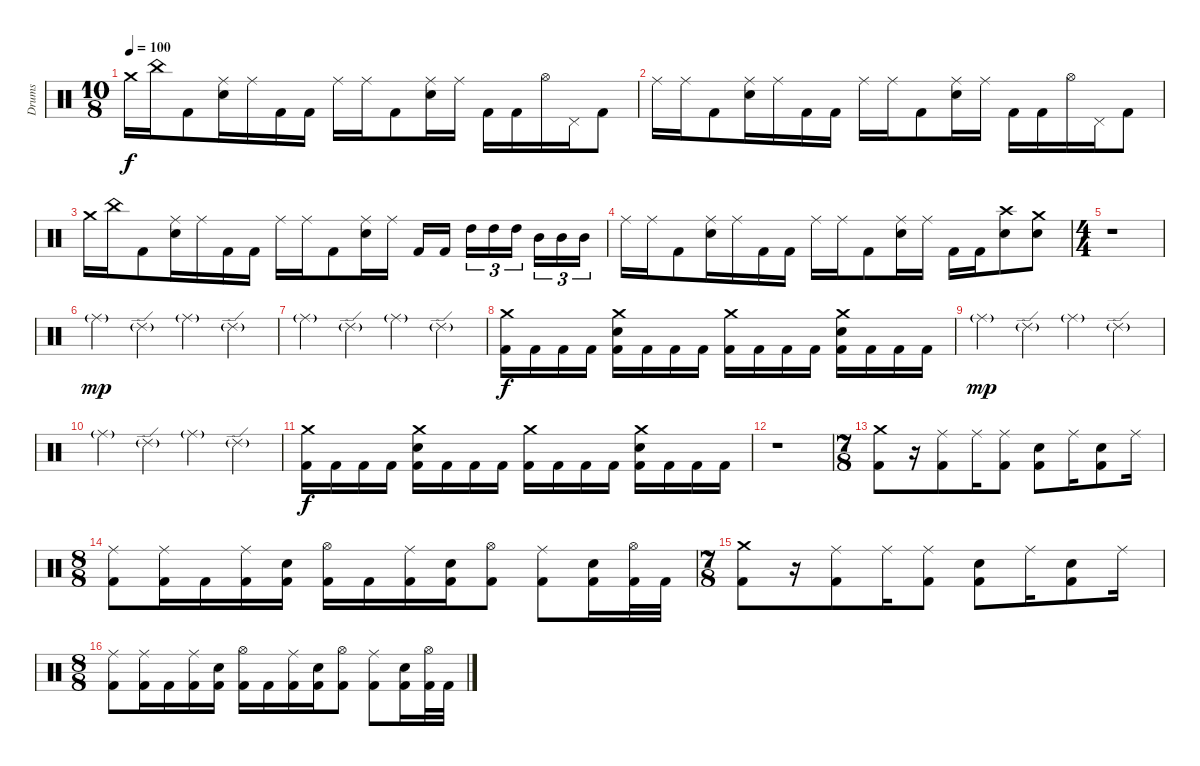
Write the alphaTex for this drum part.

\track ("Drums" "Drums") {instrument percussion}
\staff {score}
\articulation defaults
\ts (10 8)
\tempo 100
\clef neutral
\ks c "Crash medium (hit)".16{dy f} "China (hit)".16 "Kick (hit) 2".8
("Ride (middle)" "Snare (hit) 2").16 "Ride (middle)".16 "Kick (hit) 2".16 "Kick (hit) 2".16 "Ride (middle)".16 "Ride (middle)".16 "Kick (hit) 2".8 ("Ride (middle)" "Snare (hit) 2").16 "Ride (middle)".16 "Kick (hit) 2".16 "Kick (hit) 2".16 "Hi-Hat (open)".16 "Pedal Hi-Hat (hit)".16 "Kick (hit) 2".8 |
"Ride (middle)".16 "Ride (middle)".16 "Kick (hit) 2".8 ("Ride (middle)" "Snare (hit) 2").16 "Ride (middle)".16 "Kick (hit) 2".16 "Kick (hit) 2".16 "Ride (middle)".16 "Ride (middle)".16 "Kick (hit) 2".8 ("Ride (middle)" "Snare (hit) 2").16 "Ride (middle)".16 "Kick (hit) 2".16 "Kick (hit) 2".16 "Hi-Hat (open)".16 "Pedal Hi-Hat (hit)".16 "Kick (hit) 2".8 |
"Crash medium (hit)".16 "China (hit)".16 "Kick (hit) 2".8 ("Ride (middle)" "Snare (hit) 2").16 "Ride (middle)".16 "Kick (hit) 2".16 "Kick (hit) 2".16 "Ride (middle)".16 "Ride (middle)".16 "Kick (hit) 2".8 ("Ride (middle)" "Snare (hit) 2").16 "Ride (middle)".16 "Kick (hit) 2".16 "Kick (hit) 2".16 "High Tom (hit)".16{tu (3 2)} "High Tom (hit)".16{tu (3 2)} "High Tom (hit)".16{tu (3 2)} "Mid Tom (hit)".16{tu (3 2)} "Mid Tom (hit)".16{tu (3 2)} "Mid Tom (hit)".16{tu (3 2)} |
"Ride (middle)".16 "Ride (middle)".16 "Kick (hit) 2".8 ("Ride (middle)" "Snare (hit) 2").16 "Ride (middle)".16 "Kick (hit) 2".16 "Kick (hit) 2".16 "Ride (middle)".16 "Ride (middle)".16 "Kick (hit) 2".8 ("Ride (middle)" "Snare (hit) 2").16 "Ride (middle)".16 "Kick (hit) 2".16 "Kick (hit) 2".16 ("Crash high (hit)" "Snare (hit) 2").8 ("Crash medium (hit)" "Snare (hit) 2").8 |
\ts (4 4)
r.1 |
"Ride (middle)"{g}.4{dy mp} "Ride (edge) 2"{g}.4 "Ride (middle)"{g}.4 "Ride (edge) 2"{g}.4 |
"Ride (middle)"{g}.4 "Ride (edge) 2"{g}.4 "Ride (middle)"{g}.4 "Ride (edge) 2"{g}.4 |
("Crash medium (hit)" "Kick (hit) 2").16{dy f} "Kick (hit) 2".16 "Kick (hit) 2".16 "Kick (hit) 2".16 ("Crash medium (hit)" "Snare (hit) 2" "Kick (hit) 2").16 "Kick (hit) 2".16 "Kick (hit) 2".16 "Kick (hit) 2".16 ("Crash medium (hit)" "Kick (hit) 2").16 "Kick (hit) 2".16 "Kick (hit) 2".16 "Kick (hit) 2".16 ("Crash medium (hit)" "Snare (hit) 2" "Kick (hit) 2").16 "Kick (hit) 2".16 "Kick (hit) 2".16 "Kick (hit) 2".16 |
"Ride (middle)"{g}.4{dy mp} "Ride (edge) 2"{g}.4 "Ride (middle)"{g}.4 "Ride (edge) 2"{g}.4 |
"Ride (middle)"{g}.4 "Ride (edge) 2"{g}.4 "Ride (middle)"{g}.4 "Ride (edge) 2"{g}.4 |
("Crash medium (hit)" "Kick (hit) 2").16{dy f} "Kick (hit) 2".16 "Kick (hit) 2".16 "Kick (hit) 2".16 ("Crash medium (hit)" "Snare (hit) 2" "Kick (hit) 2").16 "Kick (hit) 2".16 "Kick (hit) 2".16 "Kick (hit) 2".16 ("Crash medium (hit)" "Kick (hit) 2").16 "Kick (hit) 2".16 "Kick (hit) 2".16 "Kick (hit) 2".16 ("Crash medium (hit)" "Snare (hit) 2" "Kick (hit) 2").16 "Kick (hit) 2".16 "Kick (hit) 2".16 "Kick (hit) 2".16 |
r.1 |
\ts (7 8)
("Crash medium (hit)" "Kick (hit) 2").8 r.16 ("Ride (middle)" "Kick (hit) 2").8 "Ride (middle)".16 ("Ride (middle)" "Kick (hit) 2").8 ("Snare (hit) 2" "Kick (hit) 2").8 "Ride (middle)".16 ("Snare (hit) 2" "Kick (hit) 2").8 "Ride (middle)".16 |
\ts (8 8)
("Ride (middle)" "Kick (hit) 2").8 ("Ride (middle)" "Kick (hit) 2").16 "Kick (hit) 2".16 ("Ride (middle)" "Kick (hit) 2").16 ("Snare (hit) 2" "Kick (hit) 2").16 ("Hi-Hat (open)" "Kick (hit) 2").16 "Kick (hit) 2".16 ("Ride (middle)" "Kick (hit) 2").16 ("Snare (hit) 2" "Kick (hit) 2").16 ("Hi-Hat (open)" "Kick (hit) 2").8 ("Ride (middle)" "Kick (hit) 2").8 ("Snare (hit) 2" "Kick (hit) 2").16 ("Hi-Hat (open)" "Kick (hit) 2").32 "Kick (hit) 2".32 |
\ts (7 8)
("Crash medium (hit)" "Kick (hit) 2").8 r.16 ("Ride (middle)" "Kick (hit) 2").8 "Ride (middle)".16 ("Ride (middle)" "Kick (hit) 2").8 ("Snare (hit) 2" "Kick (hit) 2").8 "Ride (middle)".16 ("Snare (hit) 2" "Kick (hit) 2").8 "Ride (middle)".16 |
\ts (8 8)
("Ride (middle)" "Kick (hit) 2").8 ("Ride (middle)" "Kick (hit) 2").16 "Kick (hit) 2".16 ("Ride (middle)" "Kick (hit) 2").16 ("Snare (hit) 2" "Kick (hit) 2").16 ("Hi-Hat (open)" "Kick (hit) 2").16 "Kick (hit) 2".16 ("Ride (middle)" "Kick (hit) 2").16 ("Snare (hit) 2" "Kick (hit) 2").16 ("Hi-Hat (open)" "Kick (hit) 2").8 ("Ride (middle)" "Kick (hit) 2").8 ("Snare (hit) 2" "Kick (hit) 2").16 ("Hi-Hat (open)" "Kick (hit) 2").32 "Kick (hit) 2".32
